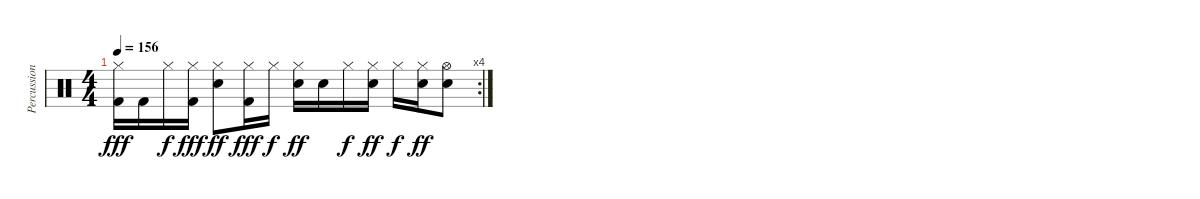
\track ("Percussion" "Percussion") {instrument percussion}
\staff {score}
\articulation defaults
\rc 4
\ts (4 4)
\tempo 156
\clef neutral
\ks c
("Hi-Hat (closed)" "Kick (hit) 2").16{dy fff} "Kick (hit) 2".16 "Hi-Hat (closed)".16{dy f} ("Hi-Hat (closed)" "Kick (hit) 2").16{dy fff} ("Hi-Hat (closed)" "Electric Snare (hit)").8{dy ff} ("Hi-Hat (closed)" "Kick (hit) 2").16{dy fff} "Hi-Hat (closed)".16{dy f} ("Hi-Hat (closed)" "Electric Snare (hit)").16{dy ff} "Electric Snare (hit)".16 "Hi-Hat (closed)".16{dy f} ("Hi-Hat (closed)" "Electric Snare (hit)").16{dy ff} "Hi-Hat (closed)".16{dy f} ("Hi-Hat (closed)" "Electric Snare (hit)").16{dy ff} ("Hi-Hat (open)" "Electric Snare (hit)").8
